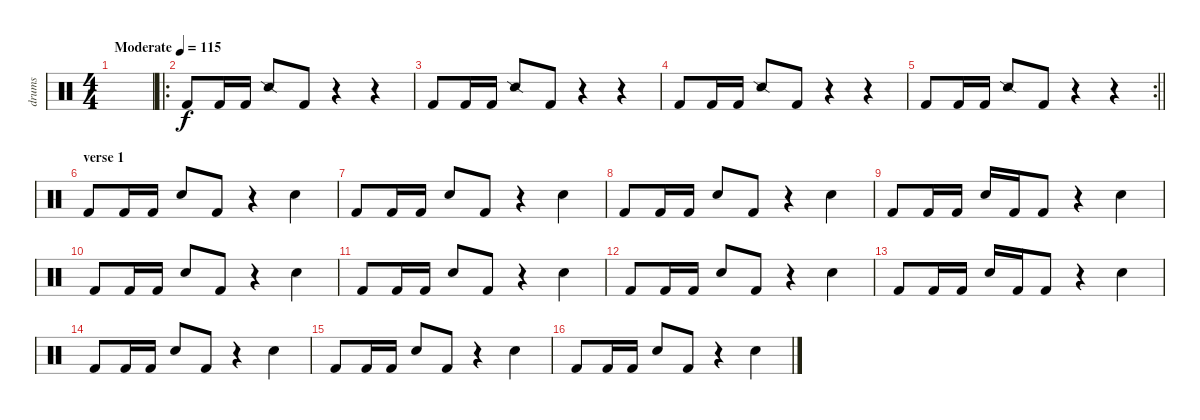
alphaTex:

\track ("drums" "drums") {instrument percussion}
\staff {score}
\articulation defaults
\ts (4 4)
\tempo (115 "Moderate")
\clef neutral
\ks c
|
\ro "Kick (hit) 2".8 "Kick (hit) 2".16 "Kick (hit) 2".16 "Snare (side stick) 2".8 "Kick (hit) 2".8
r.4 r.4 |
"Kick (hit) 2".8 "Kick (hit) 2".16 "Kick (hit) 2".16 "Snare (side stick) 2".8 "Kick (hit) 2".8 r.4 r.4 |
"Kick (hit) 2".8 "Kick (hit) 2".16 "Kick (hit) 2".16 "Snare (side stick) 2".8 "Kick (hit) 2".8 r.4 r.4 |
\rc 2
\barLineRight lightlight "Kick (hit) 2".8 "Kick (hit) 2".16 "Kick (hit) 2".16 "Snare (side stick) 2".8 "Kick (hit) 2".8
r.4 r.4 |
\section ("" "verse 1")
"Kick (hit) 2".8 "Kick (hit) 2".16 "Kick (hit) 2".16 "Snare (hit) 2".8 "Kick (hit) 2".8 r.4 "Snare (hit) 2".4 |
"Kick (hit) 2".8 "Kick (hit) 2".16 "Kick (hit) 2".16 "Snare (hit) 2".8 "Kick (hit) 2".8 r.4 "Snare (hit) 2".4 |
"Kick (hit) 2".8 "Kick (hit) 2".16 "Kick (hit) 2".16 "Snare (hit) 2".8 "Kick (hit) 2".8 r.4 "Snare (hit) 2".4 |
"Kick (hit) 2".8 "Kick (hit) 2".16 "Kick (hit) 2".16 "Snare (hit) 2".16 "Kick (hit) 2".16 "Kick (hit) 2".8 r.4 "Snare (hit) 2".4 |
"Kick (hit) 2".8 "Kick (hit) 2".16 "Kick (hit) 2".16 "Snare (hit) 2".8 "Kick (hit) 2".8 r.4 "Snare (hit) 2".4 |
"Kick (hit) 2".8 "Kick (hit) 2".16 "Kick (hit) 2".16 "Snare (hit) 2".8 "Kick (hit) 2".8 r.4 "Snare (hit) 2".4 |
"Kick (hit) 2".8 "Kick (hit) 2".16 "Kick (hit) 2".16 "Snare (hit) 2".8 "Kick (hit) 2".8 r.4 "Snare (hit) 2".4 |
"Kick (hit) 2".8 "Kick (hit) 2".16 "Kick (hit) 2".16 "Snare (hit) 2".16 "Kick (hit) 2".16 "Kick (hit) 2".8 r.4 "Snare (hit) 2".4 |
"Kick (hit) 2".8 "Kick (hit) 2".16 "Kick (hit) 2".16 "Snare (hit) 2".8 "Kick (hit) 2".8 r.4 "Snare (hit) 2".4 |
"Kick (hit) 2".8 "Kick (hit) 2".16 "Kick (hit) 2".16 "Snare (hit) 2".8 "Kick (hit) 2".8 r.4 "Snare (hit) 2".4 |
"Kick (hit) 2".8 "Kick (hit) 2".16 "Kick (hit) 2".16 "Snare (hit) 2".8 "Kick (hit) 2".8 r.4 "Snare (hit) 2".4
